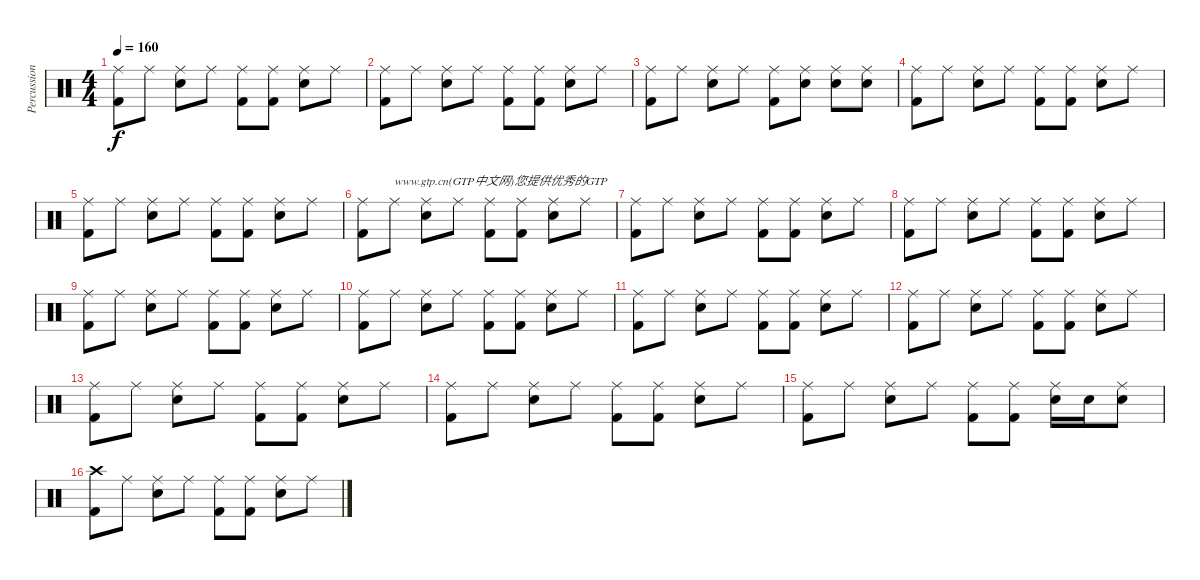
\track ("Percussions" "Percussion") {instrument percussion}
\staff {score}
\articulation defaults
\ts (4 4)
\tempo 160
\clef neutral
\ks c
("Kick (hit) 2" "Ride (middle)").8{dy f} "Ride (middle)".8 ("Snare (hit) 2" "Ride (middle)").8 "Ride (middle)".8 ("Kick (hit) 2" "Ride (middle)").8 ("Kick (hit) 2" "Ride (middle)").8 ("Ride (middle)" "Snare (hit) 2").8 "Ride (middle)".8 |
("Ride (middle)" "Kick (hit) 2").8 "Ride (middle)".8 ("Ride (middle)" "Snare (hit) 2").8 "Ride (middle)".8 ("Ride (middle)" "Kick (hit) 2").8 ("Ride (middle)" "Kick (hit) 2").8 ("Ride (middle)" "Snare (hit) 2").8 "Ride (middle)".8 |
("Ride (middle)" "Kick (hit) 2").8 "Ride (middle)".8 ("Ride (middle)" "Snare (hit) 2").8 "Ride (middle)".8 ("Ride (middle)" "Kick (hit) 2").8 ("Ride (middle)" "Snare (hit) 2").8 ("Ride (middle)" "Snare (hit) 2").8 ("Ride (middle)" "Snare (hit) 2").8 |
("Ride (middle)" "Kick (hit) 2").8 "Ride (middle)".8 ("Ride (middle)" "Snare (hit) 2").8 "Ride (middle)".8 ("Ride (middle)" "Kick (hit) 2").8 ("Ride (middle)" "Kick (hit) 2").8 ("Ride (middle)" "Snare (hit) 2").8 "Ride (middle)".8 |
("Ride (middle)" "Kick (hit) 2").8 "Ride (middle)".8 ("Ride (middle)" "Snare (hit) 2").8 "Ride (middle)".8 ("Ride (middle)" "Kick (hit) 2").8 ("Ride (middle)" "Kick (hit) 2").8 ("Ride (middle)" "Snare (hit) 2").8 "Ride (middle)".8 |
("Ride (middle)" "Kick (hit) 2").8 "Ride (middle)".8{txt "www.gtp.cn(GTP中文网)您提供优秀的GTP"} ("Ride (middle)" "Snare (hit) 2").8 "Ride (middle)".8 ("Ride (middle)" "Kick (hit) 2").8 ("Ride (middle)" "Kick (hit) 2").8 ("Ride (middle)" "Snare (hit) 2").8 "Ride (middle)".8 |
("Ride (middle)" "Kick (hit) 2").8 "Ride (middle)".8 ("Ride (middle)" "Snare (hit) 2").8 "Ride (middle)".8 ("Ride (middle)" "Kick (hit) 2").8 ("Ride (middle)" "Kick (hit) 2").8 ("Ride (middle)" "Snare (hit) 2").8 "Ride (middle)".8 |
("Ride (middle)" "Kick (hit) 2").8 "Ride (middle)".8 ("Ride (middle)" "Snare (hit) 2").8 "Ride (middle)".8 ("Ride (middle)" "Kick (hit) 2").8 ("Ride (middle)" "Kick (hit) 2").8 ("Ride (middle)" "Snare (hit) 2").8 "Ride (middle)".8 |
("Ride (middle)" "Kick (hit) 2").8 "Ride (middle)".8 ("Ride (middle)" "Snare (hit) 2").8 "Ride (middle)".8 ("Ride (middle)" "Kick (hit) 2").8 ("Ride (middle)" "Kick (hit) 2").8 ("Ride (middle)" "Snare (hit) 2").8 "Ride (middle)".8 |
("Ride (middle)" "Kick (hit) 2").8 "Ride (middle)".8 ("Ride (middle)" "Snare (hit) 2").8 "Ride (middle)".8 ("Ride (middle)" "Kick (hit) 2").8 ("Ride (middle)" "Kick (hit) 2").8 ("Ride (middle)" "Snare (hit) 2").8 "Ride (middle)".8 |
("Ride (middle)" "Kick (hit) 2").8 "Ride (middle)".8 ("Ride (middle)" "Snare (hit) 2").8 "Ride (middle)".8 ("Ride (middle)" "Kick (hit) 2").8 ("Ride (middle)" "Kick (hit) 2").8 ("Ride (middle)" "Snare (hit) 2").8 "Ride (middle)".8 |
("Ride (middle)" "Kick (hit) 2").8 "Ride (middle)".8 ("Ride (middle)" "Snare (hit) 2").8 "Ride (middle)".8 ("Ride (middle)" "Kick (hit) 2").8 ("Ride (middle)" "Kick (hit) 2").8 ("Ride (middle)" "Snare (hit) 2").8 "Ride (middle)".8 |
("Ride (middle)" "Kick (hit) 2").8 "Ride (middle)".8 ("Ride (middle)" "Snare (hit) 2").8 "Ride (middle)".8 ("Ride (middle)" "Kick (hit) 2").8 ("Ride (middle)" "Kick (hit) 2").8 ("Ride (middle)" "Snare (hit) 2").8 "Ride (middle)".8 |
("Ride (middle)" "Kick (hit) 2").8 "Ride (middle)".8 ("Ride (middle)" "Snare (hit) 2").8 "Ride (middle)".8 ("Ride (middle)" "Kick (hit) 2").8 ("Ride (middle)" "Kick (hit) 2").8 ("Ride (middle)" "Snare (hit) 2").8 "Ride (middle)".8 |
("Ride (middle)" "Kick (hit) 2").8 "Ride (middle)".8 ("Ride (middle)" "Snare (hit) 2").8 "Ride (middle)".8 ("Ride (middle)" "Kick (hit) 2").8 ("Ride (middle)" "Kick (hit) 2").8 ("Ride (middle)" "Snare (hit) 2").16 "Snare (hit) 2".16 ("Ride (middle)" "Snare (hit) 2").8 |
("Crash high (hit)" "Kick (hit) 2").8 "Ride (middle)".8 ("Ride (middle)" "Snare (hit) 2").8 "Ride (middle)".8 ("Ride (middle)" "Kick (hit) 2").8 ("Ride (middle)" "Kick (hit) 2").8 ("Ride (middle)" "Snare (hit) 2").8 "Ride (middle)".8
